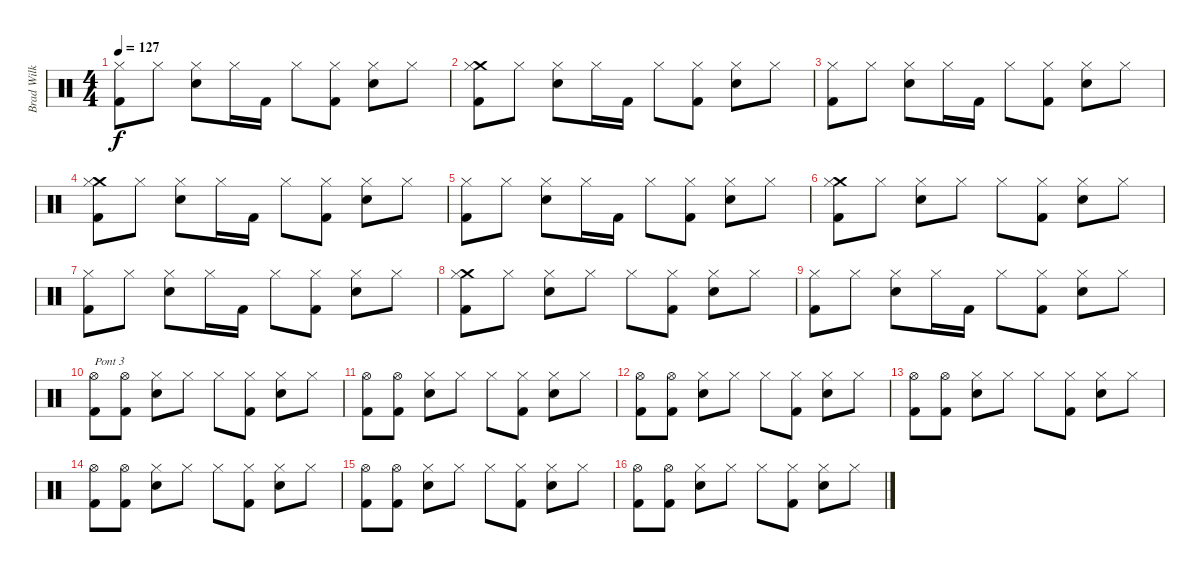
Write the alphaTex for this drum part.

\track ("Brad Wilk" "Brad Wilk") {instrument percussion}
\staff {score}
\articulation defaults
\ts (4 4)
\tempo 127
\clef neutral
\ks c
("Hi-Hat (closed)" "Kick (hit) 2").8{dy f} "Hi-Hat (closed)".8 ("Electric Snare (hit)" "Hi-Hat (closed)").8 "Hi-Hat (closed)".16 "Kick (hit) 2".16 "Hi-Hat (closed)".8 ("Hi-Hat (closed)" "Kick (hit) 2").8 ("Electric Snare (hit)" "Hi-Hat (closed)").8 "Hi-Hat (closed)".8 |
("Crash medium (hit)" "Hi-Hat (closed)" "Kick (hit) 2").8 "Hi-Hat (closed)".8 ("Electric Snare (hit)" "Hi-Hat (closed)").8 "Hi-Hat (closed)".16 "Kick (hit) 2".16 "Hi-Hat (closed)".8 ("Hi-Hat (closed)" "Kick (hit) 2").8 ("Electric Snare (hit)" "Hi-Hat (closed)").8 "Hi-Hat (closed)".8 |
("Hi-Hat (closed)" "Kick (hit) 2").8 "Hi-Hat (closed)".8 ("Electric Snare (hit)" "Hi-Hat (closed)").8 "Hi-Hat (closed)".16 "Kick (hit) 2".16 "Hi-Hat (closed)".8 ("Hi-Hat (closed)" "Kick (hit) 2").8 ("Electric Snare (hit)" "Hi-Hat (closed)").8 "Hi-Hat (closed)".8 |
("Crash medium (hit)" "Hi-Hat (closed)" "Kick (hit) 2").8 "Hi-Hat (closed)".8 ("Electric Snare (hit)" "Hi-Hat (closed)").8 "Hi-Hat (closed)".16 "Kick (hit) 2".16 "Hi-Hat (closed)".8 ("Hi-Hat (closed)" "Kick (hit) 2").8 ("Electric Snare (hit)" "Hi-Hat (closed)").8 "Hi-Hat (closed)".8 |
("Hi-Hat (closed)" "Kick (hit) 2").8 "Hi-Hat (closed)".8 ("Electric Snare (hit)" "Hi-Hat (closed)").8 "Hi-Hat (closed)".16 "Kick (hit) 2".16 "Hi-Hat (closed)".8 ("Hi-Hat (closed)" "Kick (hit) 2").8 ("Electric Snare (hit)" "Hi-Hat (closed)").8 "Hi-Hat (closed)".8 |
("Crash medium (hit)" "Hi-Hat (closed)" "Kick (hit) 2").8 "Hi-Hat (closed)".8 ("Electric Snare (hit)" "Hi-Hat (closed)").8 "Hi-Hat (closed)".8 "Hi-Hat (closed)".8 ("Hi-Hat (closed)" "Kick (hit) 2").8 ("Electric Snare (hit)" "Hi-Hat (closed)").8 "Hi-Hat (closed)".8 |
("Hi-Hat (closed)" "Kick (hit) 2").8 "Hi-Hat (closed)".8 ("Electric Snare (hit)" "Hi-Hat (closed)").8 "Hi-Hat (closed)".16 "Kick (hit) 2".16 "Hi-Hat (closed)".8 ("Hi-Hat (closed)" "Kick (hit) 2").8 ("Electric Snare (hit)" "Hi-Hat (closed)").8 "Hi-Hat (closed)".8 |
("Crash medium (hit)" "Hi-Hat (closed)" "Kick (hit) 2").8 "Hi-Hat (closed)".8 ("Electric Snare (hit)" "Hi-Hat (closed)").8 "Hi-Hat (closed)".8 "Hi-Hat (closed)".8 ("Hi-Hat (closed)" "Kick (hit) 2").8 ("Electric Snare (hit)" "Hi-Hat (closed)").8 "Hi-Hat (closed)".8 |
("Hi-Hat (closed)" "Kick (hit) 2").8 "Hi-Hat (closed)".8 ("Electric Snare (hit)" "Hi-Hat (closed)").8 "Hi-Hat (closed)".16 "Kick (hit) 2".16 "Hi-Hat (closed)".8 ("Hi-Hat (closed)" "Kick (hit) 2").8 ("Electric Snare (hit)" "Hi-Hat (closed)").8 "Hi-Hat (closed)".8 |
("Hi-Hat (open)" "Kick (hit) 2").8{txt "Pont 3"} ("Hi-Hat (open)" "Kick (hit) 2").8 ("Electric Snare (hit)" "Hi-Hat (closed)").8 "Hi-Hat (closed)".8 "Hi-Hat (closed)".8 ("Hi-Hat (closed)" "Kick (hit) 2").8 ("Electric Snare (hit)" "Hi-Hat (closed)").8 "Hi-Hat (closed)".8 |
("Hi-Hat (open)" "Kick (hit) 2").8 ("Hi-Hat (open)" "Kick (hit) 2").8 ("Electric Snare (hit)" "Hi-Hat (closed)").8 "Hi-Hat (closed)".8 "Hi-Hat (closed)".8 ("Hi-Hat (closed)" "Kick (hit) 2").8 ("Electric Snare (hit)" "Hi-Hat (closed)").8 "Hi-Hat (closed)".8 |
("Hi-Hat (open)" "Kick (hit) 2").8 ("Hi-Hat (open)" "Kick (hit) 2").8 ("Electric Snare (hit)" "Hi-Hat (closed)").8 "Hi-Hat (closed)".8 "Hi-Hat (closed)".8 ("Hi-Hat (closed)" "Kick (hit) 2").8 ("Electric Snare (hit)" "Hi-Hat (closed)").8 "Hi-Hat (closed)".8 |
("Hi-Hat (open)" "Kick (hit) 2").8 ("Hi-Hat (open)" "Kick (hit) 2").8 ("Electric Snare (hit)" "Hi-Hat (closed)").8 "Hi-Hat (closed)".8 "Hi-Hat (closed)".8 ("Hi-Hat (closed)" "Kick (hit) 2").8 ("Electric Snare (hit)" "Hi-Hat (closed)").8 "Hi-Hat (closed)".8 |
("Hi-Hat (open)" "Kick (hit) 2").8 ("Hi-Hat (open)" "Kick (hit) 2").8 ("Electric Snare (hit)" "Hi-Hat (closed)").8 "Hi-Hat (closed)".8 "Hi-Hat (closed)".8 ("Hi-Hat (closed)" "Kick (hit) 2").8 ("Electric Snare (hit)" "Hi-Hat (closed)").8 "Hi-Hat (closed)".8 |
("Hi-Hat (open)" "Kick (hit) 2").8 ("Hi-Hat (open)" "Kick (hit) 2").8 ("Electric Snare (hit)" "Hi-Hat (closed)").8 "Hi-Hat (closed)".8 "Hi-Hat (closed)".8 ("Hi-Hat (closed)" "Kick (hit) 2").8 ("Electric Snare (hit)" "Hi-Hat (closed)").8 "Hi-Hat (closed)".8 |
("Hi-Hat (open)" "Kick (hit) 2").8 ("Hi-Hat (open)" "Kick (hit) 2").8 ("Electric Snare (hit)" "Hi-Hat (closed)").8 "Hi-Hat (closed)".8 "Hi-Hat (closed)".8 ("Hi-Hat (closed)" "Kick (hit) 2").8 ("Electric Snare (hit)" "Hi-Hat (closed)").8 "Hi-Hat (closed)".8
